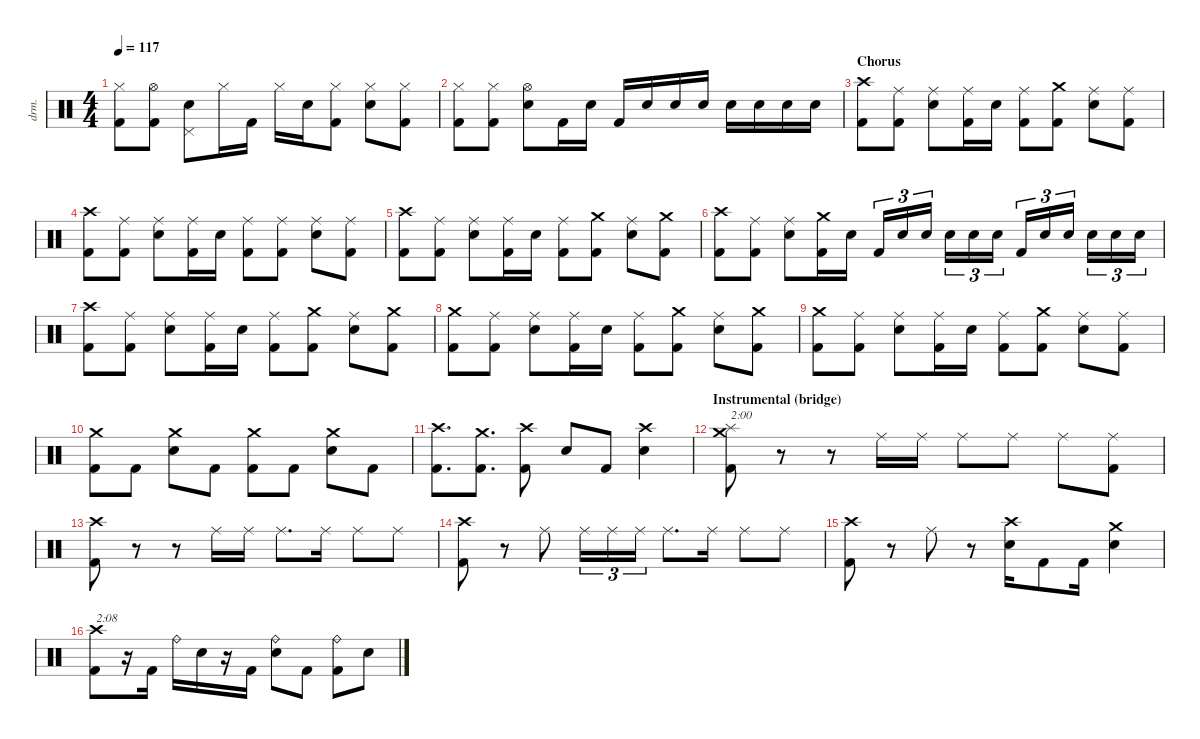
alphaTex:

\defaultSystemsLayout 4
\hideDynamics
\bracketExtendMode nobrackets
\otherSystemsTrackNameOrientation horizontal
\track ("Drums" "drm.") {instrument percussion}
\staff {score}
\articulation defaults
\ts (4 4)
\tempo 117
\clef neutral
\ks c
("Kick (hit) 2" "Hi-Hat (closed)").8{dy f} ("Kick (hit) 2" "Hi-Hat (open)").8 ("Snare (hit) 2" "Pedal Hi-Hat (hit)").8 "Hi-Hat (closed)".16 "Kick (hit) 2".16 "Hi-Hat (closed)".16 "Snare (hit) 2".16 ("Kick (hit) 2" "Hi-Hat (closed)").8 ("Snare (hit) 2" "Hi-Hat (closed)").8 ("Kick (hit) 2" "Hi-Hat (closed)").8 |
("Kick (hit) 2" "Hi-Hat (closed)").8 ("Kick (hit) 2" "Hi-Hat (closed)").8 ("Snare (hit) 2" "Hi-Hat (open)").8 "Kick (hit) 2".16 "Snare (hit) 2".16 "Kick (hit) 2".16 "Snare (hit) 2".16 "Snare (hit) 2".16 "Snare (hit) 2".16 "Snare (hit) 2".16 "Snare (hit) 2".16 "Snare (hit) 2".16 "Snare (hit) 2".16 |
\section ("" "Chorus")
("Kick (hit) 2" "Crash high (hit)").8 ("Kick (hit) 2" "Ride (middle)").8 ("Snare (hit) 2" "Ride (middle)").8 ("Kick (hit) 2" "Ride (middle)").16 "Snare (hit) 2".16 ("Kick (hit) 2" "Ride (middle)").8 ("Kick (hit) 2" "Crash medium (hit)").8 ("Snare (hit) 2" "Ride (middle)").8 ("Kick (hit) 2" "Ride (middle)").8 |
("Kick (hit) 2" "Crash high (hit)").8 ("Kick (hit) 2" "Ride (middle)").8 ("Snare (hit) 2" "Ride (middle)").8 ("Kick (hit) 2" "Ride (middle)").16 "Snare (hit) 2".16 ("Kick (hit) 2" "Ride (middle)").8 ("Kick (hit) 2" "Ride (middle)").8 ("Snare (hit) 2" "Ride (middle)").8 ("Kick (hit) 2" "Ride (middle)").8 |
("Kick (hit) 2" "Crash high (hit)").8 ("Kick (hit) 2" "Ride (middle)").8 ("Snare (hit) 2" "Ride (middle)").8 ("Kick (hit) 2" "Ride (middle)").16 "Snare (hit) 2".16 ("Kick (hit) 2" "Ride (middle)").8 ("Kick (hit) 2" "Crash medium (hit)").8 ("Snare (hit) 2" "Ride (middle)").8 ("Kick (hit) 2" "Crash medium (hit)").8 |
("Kick (hit) 2" "Crash high (hit)").8 ("Kick (hit) 2" "Ride (middle)").8 ("Snare (hit) 2" "Ride (middle)").8 ("Kick (hit) 2" "Crash medium (hit)").16 "Snare (hit) 2".16 "Kick (hit) 2".16{tu (3 2)} "Snare (hit) 2".16{tu (3 2)} "Snare (hit) 2".16{tu (3 2)} "Snare (hit) 2".16{tu (3 2)} "Snare (hit) 2".16{tu (3 2)} "Snare (hit) 2".16{tu (3 2)} "Kick (hit) 2".16{tu (3 2)} "Snare (hit) 2".16{tu (3 2)} "Snare (hit) 2".16{tu (3 2)} "Snare (hit) 2".16{tu (3 2)} "Snare (hit) 2".16{tu (3 2)} "Snare (hit) 2".16{tu (3 2)} |
("Kick (hit) 2" "Crash high (hit)").8 ("Kick (hit) 2" "Ride (middle)").8 ("Snare (hit) 2" "Ride (middle)").8 ("Kick (hit) 2" "Ride (middle)").16 "Snare (hit) 2".16 ("Kick (hit) 2" "Ride (middle)").8 ("Kick (hit) 2" "Crash medium (hit)").8 ("Snare (hit) 2" "Ride (middle)").8 ("Kick (hit) 2" "Crash medium (hit)").8 |
("Kick (hit) 2" "Crash medium (hit)").8 ("Kick (hit) 2" "Ride (middle)").8 ("Snare (hit) 2" "Ride (middle)").8 ("Kick (hit) 2" "Ride (middle)").16 "Snare (hit) 2".16 ("Kick (hit) 2" "Ride (middle)").8 ("Kick (hit) 2" "Crash medium (hit)").8 ("Snare (hit) 2" "Ride (middle)").8 ("Kick (hit) 2" "Crash medium (hit)").8 |
("Kick (hit) 2" "Crash medium (hit)").8 ("Kick (hit) 2" "Ride (middle)").8 ("Snare (hit) 2" "Ride (middle)").8 ("Kick (hit) 2" "Ride (middle)").16 "Snare (hit) 2".16 ("Kick (hit) 2" "Ride (middle)").8 ("Kick (hit) 2" "Crash medium (hit)").8 ("Snare (hit) 2" "Ride (middle)").8 ("Kick (hit) 2" "Ride (middle)").8 |
("Kick (hit) 2" "Crash medium (hit)").8 "Kick (hit) 2".8 ("Snare (hit) 2" "Crash medium (hit)").8 "Kick (hit) 2".8 ("Kick (hit) 2" "Crash medium (hit)").8 "Kick (hit) 2".8 ("Snare (hit) 2" "Crash medium (hit)").8 "Kick (hit) 2".8 |
("Kick (hit) 2" "Crash high (hit)").8{d} ("Kick (hit) 2" "Crash medium (hit)").8{d} ("Kick (hit) 2" "Crash high (hit)").8 "Snare (hit) 2".8 "Kick (hit) 2".8 ("Snare (hit) 2" "Crash high (hit)").4 |
\section ("" "Instrumental (bridge)")
("Kick (hit) 2" "Splash (hit)" "Crash medium (hit)").8{txt "2:00"} r.8 r.8 "Ride (middle)".16 "Ride (middle)".16 "Ride (middle)".8 "Ride (middle)".8 "Ride (middle)".8 ("Kick (hit) 2" "Ride (middle)").8 |
("Kick (hit) 2" "Crash high (hit)").8 r.8 r.8 "Ride (middle)".16 "Ride (middle)".16 "Ride (middle)".8{d} "Ride (middle)".16 "Ride (middle)".8 "Ride (middle)".8 |
("Kick (hit) 2" "Crash high (hit)").8 r.8 "Ride (middle)".8 "Ride (middle)".16{tu (3 2)} "Ride (middle)".16{tu (3 2)} "Ride (middle)".16{tu (3 2)} "Ride (middle)".8{d} "Ride (middle)".16 "Ride (middle)".8 "Ride (middle)".8 |
("Kick (hit) 2" "Crash high (hit)").8 r.8 "Ride (middle)".8 r.8 ("Snare (hit) 2" "Crash high (hit)").16 "Kick (hit) 2".8 "Kick (hit) 2".16 ("Snare (hit) 2" "Crash medium (hit)").4 |
("Kick (hit) 2" "Crash high (hit)").8{txt "2:08"} r.16 "Kick (hit) 2".16 "Ride (bell)".16 "Snare (hit) 2".16 r.16 "Kick (hit) 2".16 ("Ride (bell)" "Snare (hit) 2").8 "Kick (hit) 2".8 ("Kick (hit) 2" "Ride (bell)").8 "Snare (hit) 2".8
